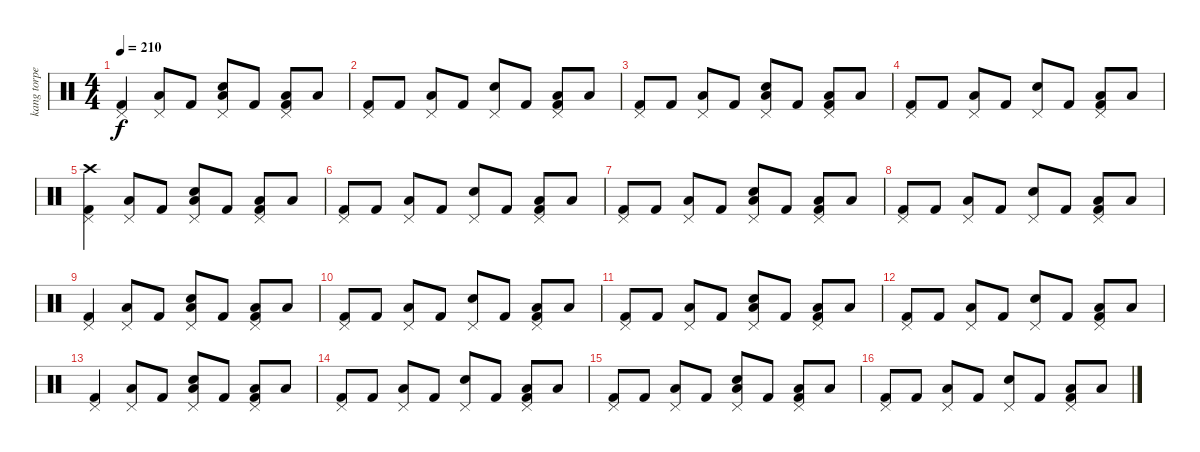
\track ("kang torpey" "kang torpe") {instrument percussion}
\staff {score}
\articulation defaults
\ts (4 4)
\tempo 210
\clef neutral
\ks c
("Pedal Hi-Hat (hit)" "Kick (hit) 2").4{dy f} ("Pedal Hi-Hat (hit)" "Low Floor Tom (hit)").8 "Kick (hit) 2".8 ("Pedal Hi-Hat (hit)" "Low Floor Tom (hit)" "Electric Snare (hit)").8 "Kick (hit) 2".8 ("Pedal Hi-Hat (hit)" "Low Floor Tom (hit)" "Kick (hit) 2").8 "Low Floor Tom (hit)".8 |
("Pedal Hi-Hat (hit)" "Kick (hit) 2").8 "Kick (hit) 2".8 ("Pedal Hi-Hat (hit)" "Low Floor Tom (hit)").8 "Kick (hit) 2".8 ("Pedal Hi-Hat (hit)" "Electric Snare (hit)").8 "Kick (hit) 2".8 ("Pedal Hi-Hat (hit)" "Low Floor Tom (hit)" "Kick (hit) 2").8 "Low Floor Tom (hit)".8 |
("Pedal Hi-Hat (hit)" "Kick (hit) 2").8 "Kick (hit) 2".8 ("Pedal Hi-Hat (hit)" "Low Floor Tom (hit)").8 "Kick (hit) 2".8 ("Pedal Hi-Hat (hit)" "Low Floor Tom (hit)" "Electric Snare (hit)").8 "Kick (hit) 2".8 ("Pedal Hi-Hat (hit)" "Low Floor Tom (hit)" "Kick (hit) 2").8 "Low Floor Tom (hit)".8 |
("Pedal Hi-Hat (hit)" "Kick (hit) 2").8 "Kick (hit) 2".8 ("Pedal Hi-Hat (hit)" "Low Floor Tom (hit)").8 "Kick (hit) 2".8 ("Pedal Hi-Hat (hit)" "Electric Snare (hit)").8 "Kick (hit) 2".8 ("Pedal Hi-Hat (hit)" "Low Floor Tom (hit)" "Kick (hit) 2").8 "Low Floor Tom (hit)".8 |
("Pedal Hi-Hat (hit)" "Crash high (hit)" "Kick (hit) 2").4 ("Pedal Hi-Hat (hit)" "Low Floor Tom (hit)").8 "Kick (hit) 2".8 ("Pedal Hi-Hat (hit)" "Low Floor Tom (hit)" "Electric Snare (hit)").8 "Kick (hit) 2".8 ("Pedal Hi-Hat (hit)" "Low Floor Tom (hit)" "Kick (hit) 2").8 "Low Floor Tom (hit)".8 |
("Pedal Hi-Hat (hit)" "Kick (hit) 2").8 "Kick (hit) 2".8 ("Pedal Hi-Hat (hit)" "Low Floor Tom (hit)").8 "Kick (hit) 2".8 ("Pedal Hi-Hat (hit)" "Electric Snare (hit)").8 "Kick (hit) 2".8 ("Pedal Hi-Hat (hit)" "Low Floor Tom (hit)" "Kick (hit) 2").8 "Low Floor Tom (hit)".8 |
("Pedal Hi-Hat (hit)" "Kick (hit) 2").8 "Kick (hit) 2".8 ("Pedal Hi-Hat (hit)" "Low Floor Tom (hit)").8 "Kick (hit) 2".8 ("Pedal Hi-Hat (hit)" "Low Floor Tom (hit)" "Electric Snare (hit)").8 "Kick (hit) 2".8 ("Pedal Hi-Hat (hit)" "Low Floor Tom (hit)" "Kick (hit) 2").8 "Low Floor Tom (hit)".8 |
("Pedal Hi-Hat (hit)" "Kick (hit) 2").8 "Kick (hit) 2".8 ("Pedal Hi-Hat (hit)" "Low Floor Tom (hit)").8 "Kick (hit) 2".8 ("Pedal Hi-Hat (hit)" "Electric Snare (hit)").8 "Kick (hit) 2".8 ("Pedal Hi-Hat (hit)" "Low Floor Tom (hit)" "Kick (hit) 2").8 "Low Floor Tom (hit)".8 |
("Pedal Hi-Hat (hit)" "Kick (hit) 2").4 ("Pedal Hi-Hat (hit)" "Low Floor Tom (hit)").8 "Kick (hit) 2".8 ("Pedal Hi-Hat (hit)" "Low Floor Tom (hit)" "Electric Snare (hit)").8 "Kick (hit) 2".8 ("Pedal Hi-Hat (hit)" "Low Floor Tom (hit)" "Kick (hit) 2").8 "Low Floor Tom (hit)".8 |
("Pedal Hi-Hat (hit)" "Kick (hit) 2").8 "Kick (hit) 2".8 ("Pedal Hi-Hat (hit)" "Low Floor Tom (hit)").8 "Kick (hit) 2".8 ("Pedal Hi-Hat (hit)" "Electric Snare (hit)").8 "Kick (hit) 2".8 ("Pedal Hi-Hat (hit)" "Low Floor Tom (hit)" "Kick (hit) 2").8 "Low Floor Tom (hit)".8 |
("Pedal Hi-Hat (hit)" "Kick (hit) 2").8 "Kick (hit) 2".8 ("Pedal Hi-Hat (hit)" "Low Floor Tom (hit)").8 "Kick (hit) 2".8 ("Pedal Hi-Hat (hit)" "Low Floor Tom (hit)" "Electric Snare (hit)").8 "Kick (hit) 2".8 ("Pedal Hi-Hat (hit)" "Low Floor Tom (hit)" "Kick (hit) 2").8 "Low Floor Tom (hit)".8 |
("Pedal Hi-Hat (hit)" "Kick (hit) 2").8 "Kick (hit) 2".8 ("Pedal Hi-Hat (hit)" "Low Floor Tom (hit)").8 "Kick (hit) 2".8 ("Pedal Hi-Hat (hit)" "Electric Snare (hit)").8 "Kick (hit) 2".8 ("Pedal Hi-Hat (hit)" "Low Floor Tom (hit)" "Kick (hit) 2").8 "Low Floor Tom (hit)".8 |
("Pedal Hi-Hat (hit)" "Kick (hit) 2").4 ("Pedal Hi-Hat (hit)" "Low Floor Tom (hit)").8 "Kick (hit) 2".8 ("Pedal Hi-Hat (hit)" "Low Floor Tom (hit)" "Electric Snare (hit)").8 "Kick (hit) 2".8 ("Pedal Hi-Hat (hit)" "Low Floor Tom (hit)" "Kick (hit) 2").8 "Low Floor Tom (hit)".8 |
("Pedal Hi-Hat (hit)" "Kick (hit) 2").8 "Kick (hit) 2".8 ("Pedal Hi-Hat (hit)" "Low Floor Tom (hit)").8 "Kick (hit) 2".8 ("Pedal Hi-Hat (hit)" "Electric Snare (hit)").8 "Kick (hit) 2".8 ("Pedal Hi-Hat (hit)" "Low Floor Tom (hit)" "Kick (hit) 2").8 "Low Floor Tom (hit)".8 |
("Pedal Hi-Hat (hit)" "Kick (hit) 2").8 "Kick (hit) 2".8 ("Pedal Hi-Hat (hit)" "Low Floor Tom (hit)").8 "Kick (hit) 2".8 ("Pedal Hi-Hat (hit)" "Low Floor Tom (hit)" "Electric Snare (hit)").8 "Kick (hit) 2".8 ("Pedal Hi-Hat (hit)" "Low Floor Tom (hit)" "Kick (hit) 2").8 "Low Floor Tom (hit)".8 |
("Pedal Hi-Hat (hit)" "Kick (hit) 2").8 "Kick (hit) 2".8 ("Pedal Hi-Hat (hit)" "Low Floor Tom (hit)").8 "Kick (hit) 2".8 ("Pedal Hi-Hat (hit)" "Electric Snare (hit)").8 "Kick (hit) 2".8 ("Pedal Hi-Hat (hit)" "Low Floor Tom (hit)" "Kick (hit) 2").8 "Low Floor Tom (hit)".8
